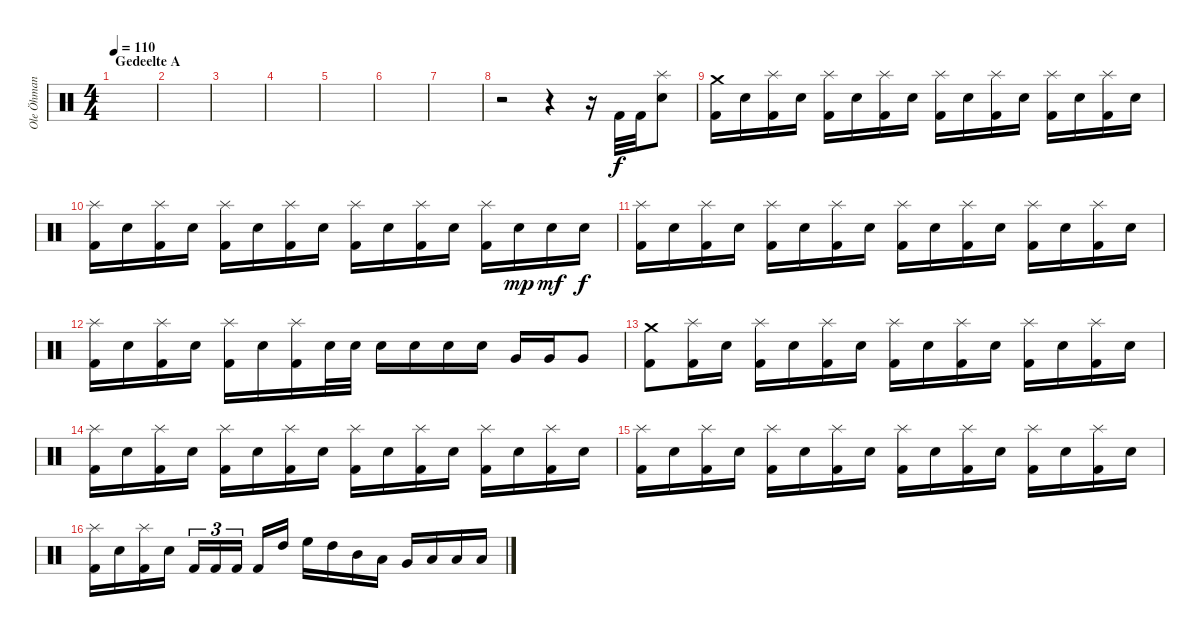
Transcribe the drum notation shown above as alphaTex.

\track ("Ole Öhman" "Ole Öhman") {instrument percussion}
\staff {score}
\articulation defaults
\ts (4 4)
\section ("" "Gedeelte A")
\tempo 110
\clef neutral
\ks c
|
|
|
|
|
|
|
r.2 r.4 r.16 "Kick (hit) 2".32{volume 14} "Kick (hit) 2".32 ("Splash (hit)" "Electric Snare (hit)").8 |
("Crash medium (hit)" "Kick (hit) 2").16 "Electric Snare (hit)".16 ("Splash (hit)" "Kick (hit) 2").16 "Electric Snare (hit)".16 ("Splash (hit)" "Kick (hit) 2").16 "Electric Snare (hit)".16 ("Splash (hit)" "Kick (hit) 2").16 "Electric Snare (hit)".16 ("Splash (hit)" "Kick (hit) 2").16 "Electric Snare (hit)".16 ("Splash (hit)" "Kick (hit) 2").16 "Electric Snare (hit)".16 ("Splash (hit)" "Kick (hit) 2").16 "Electric Snare (hit)".16 ("Splash (hit)" "Kick (hit) 2").16 "Electric Snare (hit)".16 |
("Splash (hit)" "Kick (hit) 2").16 "Electric Snare (hit)".16 ("Splash (hit)" "Kick (hit) 2").16 "Electric Snare (hit)".16 ("Splash (hit)" "Kick (hit) 2").16 "Electric Snare (hit)".16 ("Splash (hit)" "Kick (hit) 2").16 "Electric Snare (hit)".16 ("Splash (hit)" "Kick (hit) 2").16 "Electric Snare (hit)".16 ("Splash (hit)" "Kick (hit) 2").16 "Electric Snare (hit)".16 ("Splash (hit)" "Kick (hit) 2").16 "Electric Snare (hit)".16{dy mp} "Electric Snare (hit)".16{dy mf} "Electric Snare (hit)".16{dy f} |
("Splash (hit)" "Kick (hit) 2").16 "Electric Snare (hit)".16 ("Splash (hit)" "Kick (hit) 2").16 "Electric Snare (hit)".16 ("Splash (hit)" "Kick (hit) 2").16 "Electric Snare (hit)".16 ("Splash (hit)" "Kick (hit) 2").16 "Electric Snare (hit)".16 ("Splash (hit)" "Kick (hit) 2").16 "Electric Snare (hit)".16 ("Splash (hit)" "Kick (hit) 2").16 "Electric Snare (hit)".16 ("Splash (hit)" "Kick (hit) 2").16 "Electric Snare (hit)".16 ("Splash (hit)" "Kick (hit) 2").16 "Electric Snare (hit)".16 |
("Splash (hit)" "Kick (hit) 2").16 "Electric Snare (hit)".16 ("Splash (hit)" "Kick (hit) 2").16 "Electric Snare (hit)".16 ("Splash (hit)" "Kick (hit) 2").16 "Electric Snare (hit)".16 ("Splash (hit)" "Kick (hit) 2").16 "Electric Snare (hit)".32 "Electric Snare (hit)".32 "Electric Snare (hit)".16 "Electric Snare (hit)".16 "Electric Snare (hit)".16 "Electric Snare (hit)".16 "Very Low Tom (hit)".16 "Very Low Tom (hit)".16 "Very Low Tom (hit)".8 |
("Crash medium (hit)" "Kick (hit) 2").8 ("Splash (hit)" "Kick (hit) 2").16 "Electric Snare (hit)".16 ("Splash (hit)" "Kick (hit) 2").16 "Electric Snare (hit)".16 ("Splash (hit)" "Kick (hit) 2").16 "Electric Snare (hit)".16 ("Splash (hit)" "Kick (hit) 2").16 "Electric Snare (hit)".16 ("Splash (hit)" "Kick (hit) 2").16 "Electric Snare (hit)".16 ("Splash (hit)" "Kick (hit) 2").16 "Electric Snare (hit)".16 ("Splash (hit)" "Kick (hit) 2").16 "Electric Snare (hit)".16 |
("Splash (hit)" "Kick (hit) 2").16 "Electric Snare (hit)".16 ("Splash (hit)" "Kick (hit) 2").16 "Electric Snare (hit)".16 ("Splash (hit)" "Kick (hit) 2").16 "Electric Snare (hit)".16 ("Splash (hit)" "Kick (hit) 2").16 "Electric Snare (hit)".16 ("Splash (hit)" "Kick (hit) 2").16 "Electric Snare (hit)".16 ("Splash (hit)" "Kick (hit) 2").16 "Electric Snare (hit)".16 ("Splash (hit)" "Kick (hit) 2").16 "Electric Snare (hit)".16 ("Splash (hit)" "Kick (hit) 2").16 "Electric Snare (hit)".16 |
("Splash (hit)" "Kick (hit) 2").16 "Electric Snare (hit)".16 ("Splash (hit)" "Kick (hit) 2").16 "Electric Snare (hit)".16 ("Splash (hit)" "Kick (hit) 2").16 "Electric Snare (hit)".16 ("Splash (hit)" "Kick (hit) 2").16 "Electric Snare (hit)".16 ("Splash (hit)" "Kick (hit) 2").16 "Electric Snare (hit)".16 ("Splash (hit)" "Kick (hit) 2").16 "Electric Snare (hit)".16 ("Splash (hit)" "Kick (hit) 2").16 "Electric Snare (hit)".16 ("Splash (hit)" "Kick (hit) 2").16 "Electric Snare (hit)".16 |
("Splash (hit)" "Kick (hit) 2").16 "Electric Snare (hit)".16 ("Splash (hit)" "Kick (hit) 2").16 "Electric Snare (hit)".16 "Kick (hit) 2".16{tu (3 2)} "Kick (hit) 2".16{tu (3 2)} "Kick (hit) 2".16{tu (3 2)} "Kick (hit) 2".16 "High Tom (hit)".16 "High Floor Tom (hit)".16 "High Tom (hit)".16 "Mid Tom (hit)".16 "Low Tom (hit)".16 "Very Low Tom (hit)".16 "Low Floor Tom (hit)".16 "Low Floor Tom (hit)".16 "Low Floor Tom (hit)".16
